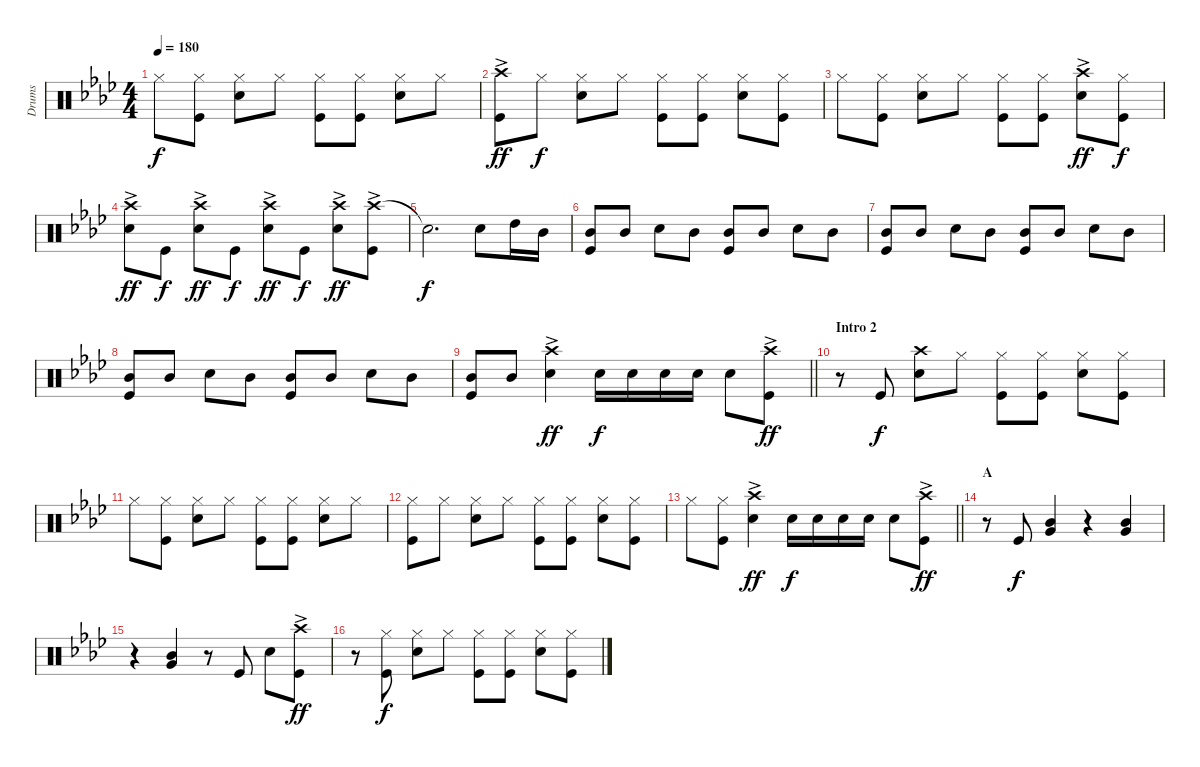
\track ("Drums" "Drums") {instrument percussion}
\staff {score}
\articulation defaults
\ts (4 4)
\tempo 180
\clef neutral
\ks ab "Hi-Hat (closed)".8{dy f}
("Hi-Hat (closed)" "Kick (hit)").8 ("Hi-Hat (closed)" "Snare (hit) 2").8 "Hi-Hat (closed)".8 ("Hi-Hat (closed)" "Kick (hit)").8 ("Hi-Hat (closed)" "Kick (hit)").8 ("Hi-Hat (closed)" "Snare (hit) 2").8 "Hi-Hat (closed)".8 |
("Crash high (hit)"{ac} "Kick (hit)").8{dy ff} "Hi-Hat (closed)".8{dy f} ("Hi-Hat (closed)" "Snare (hit) 2").8 "Hi-Hat (closed)".8 ("Hi-Hat (closed)" "Kick (hit)").8 ("Hi-Hat (closed)" "Kick (hit)").8 ("Hi-Hat (closed)" "Snare (hit) 2").8 ("Hi-Hat (closed)" "Kick (hit)").8 |
"Hi-Hat (closed)".8 ("Hi-Hat (closed)" "Kick (hit)").8 ("Hi-Hat (closed)" "Snare (hit) 2").8 "Hi-Hat (closed)".8 ("Hi-Hat (closed)" "Kick (hit)").8 ("Hi-Hat (closed)" "Kick (hit)").8 ("Crash high (hit)"{ac} "Snare (hit) 2").8{dy ff} ("Hi-Hat (closed)" "Kick (hit)").8{dy f} |
("Crash high (hit)"{ac} "Snare (hit) 2").8{dy ff} "Kick (hit)".8{dy f} ("Crash high (hit)"{ac} "Snare (hit) 2").8{dy ff} "Kick (hit)".8{dy f} ("Crash high (hit)"{ac} "Snare (hit) 2").8{dy ff} "Kick (hit)".8{dy f} ("Crash high (hit)"{ac} "Snare (hit) 2").8{dy ff} ("Crash high (hit)"{ac} "Kick (hit)").8 |
"Snare (hit)"{t}.2{d dy f} "Snare (hit) 2".8 "High Tom (hit)".16 "Mid Tom (hit)".16 |
("Mid Tom (hit)" "Kick (hit)").8 "Mid Tom (hit)".8 "Snare (hit) 2".8 "Mid Tom (hit)".8 ("Mid Tom (hit)" "Kick (hit)").8 "Mid Tom (hit)".8 "Snare (hit) 2".8 "Mid Tom (hit)".8 |
("Mid Tom (hit)" "Kick (hit)").8 "Mid Tom (hit)".8 "Snare (hit) 2".8 "Mid Tom (hit)".8 ("Mid Tom (hit)" "Kick (hit)").8 "Mid Tom (hit)".8 "Snare (hit) 2".8 "Mid Tom (hit)".8 |
("Mid Tom (hit)" "Kick (hit)").8 "Mid Tom (hit)".8 "Snare (hit) 2".8 "Mid Tom (hit)".8 ("Mid Tom (hit)" "Kick (hit)").8 "Mid Tom (hit)".8 "Snare (hit) 2".8 "Mid Tom (hit)".8 |
\barLineRight lightlight
("Mid Tom (hit)" "Kick (hit)").8 "Mid Tom (hit)".8 ("Crash high (hit)"{ac} "Snare (hit) 2").4{dy ff} "Snare (hit) 2".16{dy f} "Snare (hit) 2".16 "Snare (hit) 2".16 "Snare (hit) 2".16 "Snare (hit) 2".8 ("Crash high (hit)"{ac} "Kick (hit)").8{dy ff} |
\section ("" "Intro 2")
r.8 "Kick (hit)".8{dy f} ("Crash high (hit)" "Snare (hit) 2").8 "Hi-Hat (closed)".8 ("Hi-Hat (closed)" "Kick (hit)").8 ("Hi-Hat (closed)" "Kick (hit)").8 ("Hi-Hat (closed)" "Snare (hit) 2").8 ("Hi-Hat (closed)" "Kick (hit)").8 |
"Hi-Hat (closed)".8 ("Hi-Hat (closed)" "Kick (hit)").8 ("Hi-Hat (closed)" "Snare (hit) 2").8 "Hi-Hat (closed)".8 ("Hi-Hat (closed)" "Kick (hit)").8 ("Hi-Hat (closed)" "Kick (hit)").8 ("Hi-Hat (closed)" "Snare (hit) 2").8 "Hi-Hat (closed)".8 |
("Hi-Hat (closed)" "Kick (hit)").8 "Hi-Hat (closed)".8 ("Hi-Hat (closed)" "Snare (hit) 2").8 "Hi-Hat (closed)".8 ("Hi-Hat (closed)" "Kick (hit)").8 ("Hi-Hat (closed)" "Kick (hit)").8 ("Hi-Hat (closed)" "Snare (hit) 2").8 ("Hi-Hat (closed)" "Kick (hit)").8 |
\barLineRight lightlight "Hi-Hat (closed)".8
("Hi-Hat (closed)" "Kick (hit)").8 ("Crash high (hit)"{ac} "Snare (hit) 2").4{dy ff} "Snare (hit) 2".16{dy f} "Snare (hit) 2".16 "Snare (hit) 2".16 "Snare (hit) 2".16 "Snare (hit) 2".8 ("Crash high (hit)"{ac} "Kick (hit)").8{dy ff} |
\section ("" "A")
r.8 "Kick (hit)".8{dy f} ("Very Low Tom (hit)" "Mid Tom (hit)").4 r.4 ("Very Low Tom (hit)" "Mid Tom (hit)").4 |
r.4 ("Very Low Tom (hit)" "Mid Tom (hit)").4 r.8 "Kick (hit)".8 "Snare (hit) 2".8 ("Crash high (hit)"{ac} "Kick (hit)").8{dy ff} |
r.8 ("Hi-Hat (closed)" "Kick (hit)").8{dy f} ("Hi-Hat (closed)" "Snare (hit) 2").8 "Hi-Hat (closed)".8 ("Hi-Hat (closed)" "Kick (hit)").8 ("Hi-Hat (closed)" "Kick (hit)").8 ("Hi-Hat (closed)" "Snare (hit) 2").8 ("Hi-Hat (closed)" "Kick (hit)").8
